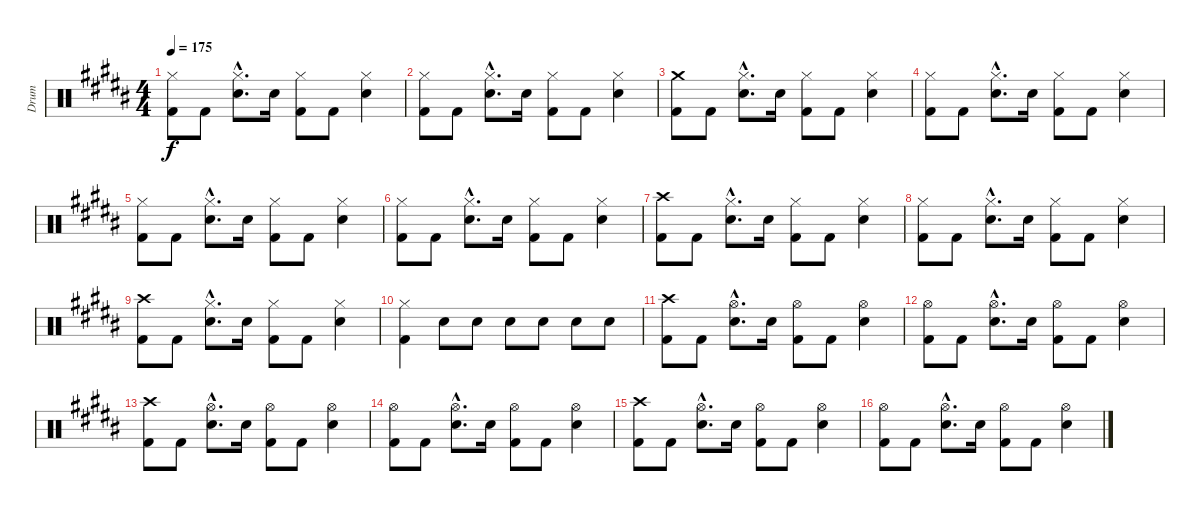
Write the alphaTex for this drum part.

\track ("Drum" "Drum") {instrument percussion}
\staff {score}
\articulation defaults
\ts (4 4)
\tempo 175
\clef neutral
\ks b
("Hi-Hat (closed)" "Kick (hit) 2").8{dy f} "Kick (hit) 2".8 ("Hi-Hat (closed)"{hac} "Snare (hit) 2"{hac}).8{d} "Snare (hit) 2".16 ("Hi-Hat (closed)" "Kick (hit) 2").8 "Kick (hit) 2".8 ("Hi-Hat (closed)" "Snare (hit) 2").4 |
("Hi-Hat (closed)" "Kick (hit) 2").8 "Kick (hit) 2".8 ("Hi-Hat (closed)"{hac} "Snare (hit) 2"{hac}).8{d} "Snare (hit) 2".16 ("Hi-Hat (closed)" "Kick (hit) 2").8 "Kick (hit) 2".8 ("Hi-Hat (closed)" "Snare (hit) 2").4 |
("Crash medium (hit)" "Kick (hit) 2").8 "Kick (hit) 2".8 ("Hi-Hat (closed)"{hac} "Snare (hit) 2"{hac}).8{d} "Snare (hit) 2".16 ("Hi-Hat (closed)" "Kick (hit) 2").8 "Kick (hit) 2".8 ("Hi-Hat (closed)" "Snare (hit) 2").4 |
("Hi-Hat (closed)" "Kick (hit) 2").8 "Kick (hit) 2".8 ("Hi-Hat (closed)"{hac} "Snare (hit) 2"{hac}).8{d} "Snare (hit) 2".16 ("Hi-Hat (closed)" "Kick (hit) 2").8 "Kick (hit) 2".8 ("Hi-Hat (closed)" "Snare (hit) 2").4 |
("Hi-Hat (closed)" "Kick (hit) 2").8 "Kick (hit) 2".8 ("Hi-Hat (closed)"{hac} "Snare (hit) 2"{hac}).8{d} "Snare (hit) 2".16 ("Hi-Hat (closed)" "Kick (hit) 2").8 "Kick (hit) 2".8 ("Hi-Hat (closed)" "Snare (hit) 2").4 |
("Hi-Hat (closed)" "Kick (hit) 2").8 "Kick (hit) 2".8 ("Hi-Hat (closed)"{hac} "Snare (hit) 2"{hac}).8{d} "Snare (hit) 2".16 ("Hi-Hat (closed)" "Kick (hit) 2").8 "Kick (hit) 2".8 ("Hi-Hat (closed)" "Snare (hit) 2").4 |
("Crash high (hit)" "Kick (hit) 2").8 "Kick (hit) 2".8 ("Hi-Hat (closed)"{hac} "Snare (hit) 2"{hac}).8{d} "Snare (hit) 2".16 ("Hi-Hat (closed)" "Kick (hit) 2").8 "Kick (hit) 2".8 ("Hi-Hat (closed)" "Snare (hit) 2").4 |
("Hi-Hat (closed)" "Kick (hit) 2").8 "Kick (hit) 2".8 ("Hi-Hat (closed)"{hac} "Snare (hit) 2"{hac}).8{d} "Snare (hit) 2".16 ("Hi-Hat (closed)" "Kick (hit) 2").8 "Kick (hit) 2".8 ("Hi-Hat (closed)" "Snare (hit) 2").4 |
("Crash high (hit)" "Kick (hit) 2").8 "Kick (hit) 2".8 ("Hi-Hat (closed)"{hac} "Snare (hit) 2"{hac}).8{d} "Snare (hit) 2".16 ("Hi-Hat (closed)" "Kick (hit) 2").8 "Kick (hit) 2".8 ("Hi-Hat (closed)" "Snare (hit) 2").4 |
("Hi-Hat (closed)" "Kick (hit) 2").4 "Snare (hit) 2".8 "Snare (hit) 2".8 "Snare (hit) 2".8 "Snare (hit) 2".8 "Snare (hit) 2".8 "Snare (hit) 2".8 |
("Crash high (hit)" "Kick (hit) 2").8 "Kick (hit) 2".8 ("Hi-Hat (open)"{hac} "Snare (hit) 2"{hac}).8{d} "Snare (hit) 2".16 ("Hi-Hat (open)" "Kick (hit) 2").8 "Kick (hit) 2".8 ("Hi-Hat (open)" "Snare (hit) 2").4 |
("Hi-Hat (open)" "Kick (hit) 2").8 "Kick (hit) 2".8 ("Hi-Hat (open)"{hac} "Snare (hit) 2"{hac}).8{d} "Snare (hit) 2".16 ("Hi-Hat (open)" "Kick (hit) 2").8 "Kick (hit) 2".8 ("Hi-Hat (open)" "Snare (hit) 2").4 |
("Crash high (hit)" "Kick (hit) 2").8 "Kick (hit) 2".8 ("Hi-Hat (open)"{hac} "Snare (hit) 2"{hac}).8{d} "Snare (hit) 2".16 ("Hi-Hat (open)" "Kick (hit) 2").8 "Kick (hit) 2".8 ("Hi-Hat (open)" "Snare (hit) 2").4 |
("Hi-Hat (open)" "Kick (hit) 2").8 "Kick (hit) 2".8 ("Hi-Hat (open)"{hac} "Snare (hit) 2"{hac}).8{d} "Snare (hit) 2".16 ("Hi-Hat (open)" "Kick (hit) 2").8 "Kick (hit) 2".8 ("Hi-Hat (open)" "Snare (hit) 2").4 |
("Crash high (hit)" "Kick (hit) 2").8 "Kick (hit) 2".8 ("Hi-Hat (open)"{hac} "Snare (hit) 2"{hac}).8{d} "Snare (hit) 2".16 ("Hi-Hat (open)" "Kick (hit) 2").8 "Kick (hit) 2".8 ("Hi-Hat (open)" "Snare (hit) 2").4 |
("Hi-Hat (open)" "Kick (hit) 2").8 "Kick (hit) 2".8 ("Hi-Hat (open)"{hac} "Snare (hit) 2"{hac}).8{d} "Snare (hit) 2".16 ("Hi-Hat (open)" "Kick (hit) 2").8 "Kick (hit) 2".8 ("Hi-Hat (open)" "Snare (hit) 2").4
